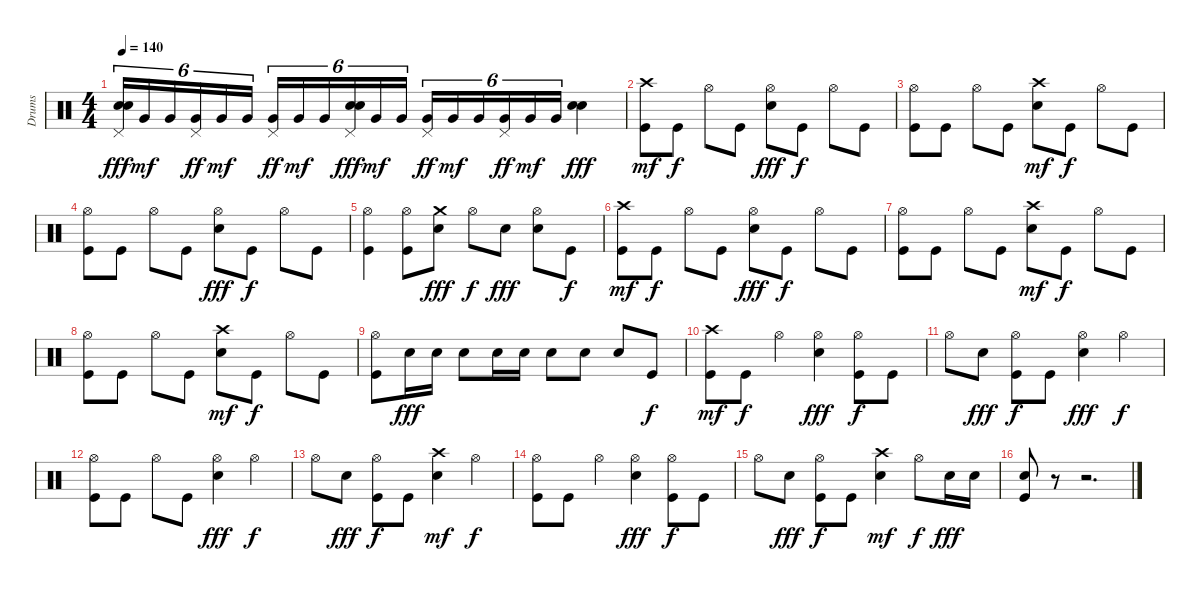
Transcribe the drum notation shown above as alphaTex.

\track ("Drums" "Drums") {instrument percussion}
\staff {score}
\articulation defaults
\ts (4 4)
\tempo 140
\clef neutral
\ks c
("Electric Snare (hit)" "Pedal Hi-Hat (hit)" "Electric Snare (hit)").16{tu (6 4) dy fff} "Very Low Tom (hit)".16{tu (6 4) dy mf} "Very Low Tom (hit)".16{tu (6 4)} ("Very Low Tom (hit)" "Pedal Hi-Hat (hit)").16{tu (6 4) dy ff} "Very Low Tom (hit)".16{tu (6 4) dy mf} "Very Low Tom (hit)".16{tu (6 4)} ("Very Low Tom (hit)" "Pedal Hi-Hat (hit)").16{tu (6 4) dy ff} "Very Low Tom (hit)".16{tu (6 4) dy mf} "Very Low Tom (hit)".16{tu (6 4)} ("Electric Snare (hit)" "Pedal Hi-Hat (hit)" "Electric Snare (hit)").16{tu (6 4) dy fff} "Very Low Tom (hit)".16{tu (6 4) dy mf} "Very Low Tom (hit)".16{tu (6 4)} ("Very Low Tom (hit)" "Pedal Hi-Hat (hit)").16{tu (6 4) dy ff} "Very Low Tom (hit)".16{tu (6 4) dy mf} "Very Low Tom (hit)".16{tu (6 4)} ("Very Low Tom (hit)" "Pedal Hi-Hat (hit)").16{tu (6 4) dy ff} "Very Low Tom (hit)".16{tu (6 4) dy mf} "Very Low Tom (hit)".16{tu (6 4)} ("Electric Snare (hit)" "Electric Snare (hit)").4{dy fff} |
("Kick (hit)" "Crash high (hit)").8{dy mf} "Kick (hit)".8{dy f} "Hi-Hat (open)".8 "Kick (hit)".8 ("Electric Snare (hit)" "Hi-Hat (open)").8{dy fff} "Kick (hit)".8{dy f} "Hi-Hat (open)".8 "Kick (hit)".8 |
("Kick (hit)" "Hi-Hat (open)").8 "Kick (hit)".8 "Hi-Hat (open)".8 "Kick (hit)".8 ("Electric Snare (hit)" "Crash high (hit)").8{dy mf} "Kick (hit)".8{dy f} "Hi-Hat (open)".8 "Kick (hit)".8 |
("Kick (hit)" "Hi-Hat (open)").8 "Kick (hit)".8 "Hi-Hat (open)".8 "Kick (hit)".8 ("Electric Snare (hit)" "Hi-Hat (open)").8{dy fff} "Kick (hit)".8{dy f} "Hi-Hat (open)".8 "Kick (hit)".8 |
("Hi-Hat (open)" "Kick (hit)").4 ("Hi-Hat (open)" "Kick (hit)").8 ("Electric Snare (hit)" "Crash medium (hit)").8{dy fff} "Hi-Hat (open)".8{dy f} "Electric Snare (hit)".8{dy fff} ("Electric Snare (hit)" "Hi-Hat (open)").8 "Kick (hit)".8{dy f} |
("Kick (hit)" "Crash high (hit)").8{dy mf} "Kick (hit)".8{dy f} "Hi-Hat (open)".8 "Kick (hit)".8 ("Electric Snare (hit)" "Hi-Hat (open)").8{dy fff} "Kick (hit)".8{dy f} "Hi-Hat (open)".8 "Kick (hit)".8 |
("Kick (hit)" "Hi-Hat (open)").8 "Kick (hit)".8 "Hi-Hat (open)".8 "Kick (hit)".8 ("Electric Snare (hit)" "Crash high (hit)").8{dy mf} "Kick (hit)".8{dy f} "Hi-Hat (open)".8 "Kick (hit)".8 |
("Kick (hit)" "Hi-Hat (open)").8 "Kick (hit)".8 "Hi-Hat (open)".8 "Kick (hit)".8 ("Electric Snare (hit)" "Crash high (hit)").8{dy mf} "Kick (hit)".8{dy f} "Hi-Hat (open)".8 "Kick (hit)".8 |
("Hi-Hat (open)" "Kick (hit)").8 "Electric Snare (hit)".16{dy fff} "Electric Snare (hit)".16 "Electric Snare (hit)".8 "Electric Snare (hit)".16 "Electric Snare (hit)".16 "Electric Snare (hit)".8 "Electric Snare (hit)".8 "Electric Snare (hit)".8 "Kick (hit)".8{dy f} |
("Kick (hit)" "Crash high (hit)").8{dy mf} "Kick (hit)".8{dy f} "Hi-Hat (open)".4 ("Electric Snare (hit)" "Hi-Hat (open)").4{dy fff} ("Kick (hit)" "Hi-Hat (open)").8{dy f} "Kick (hit)".8 |
"Hi-Hat (open)".8 "Electric Snare (hit)".8{dy fff} ("Kick (hit)" "Hi-Hat (open)").8{dy f} "Kick (hit)".8 ("Electric Snare (hit)" "Hi-Hat (open)").4{dy fff} "Hi-Hat (open)".4{dy f} |
("Kick (hit)" "Hi-Hat (open)").8 "Kick (hit)".8 "Hi-Hat (open)".8 "Kick (hit)".8 ("Electric Snare (hit)" "Hi-Hat (open)").4{dy fff} "Hi-Hat (open)".4{dy f} |
"Hi-Hat (open)".8 "Electric Snare (hit)".8{dy fff} ("Kick (hit)" "Hi-Hat (open)").8{dy f} "Kick (hit)".8 ("Electric Snare (hit)" "Crash high (hit)").4{dy mf} "Hi-Hat (open)".4{dy f} |
("Kick (hit)" "Hi-Hat (open)").8 "Kick (hit)".8 "Hi-Hat (open)".4 ("Electric Snare (hit)" "Hi-Hat (open)").4{dy fff} ("Kick (hit)" "Hi-Hat (open)").8{dy f} "Kick (hit)".8 |
"Hi-Hat (open)".8 "Electric Snare (hit)".8{dy fff} ("Kick (hit)" "Hi-Hat (open)").8{dy f} "Kick (hit)".8 ("Electric Snare (hit)" "Crash high (hit)").4{dy mf} "Hi-Hat (open)".8{dy f} "Electric Snare (hit)".16{dy fff} "Electric Snare (hit)".16 |
("Kick (hit)" "Electric Snare (hit)").8 r.8 r.2{d}
